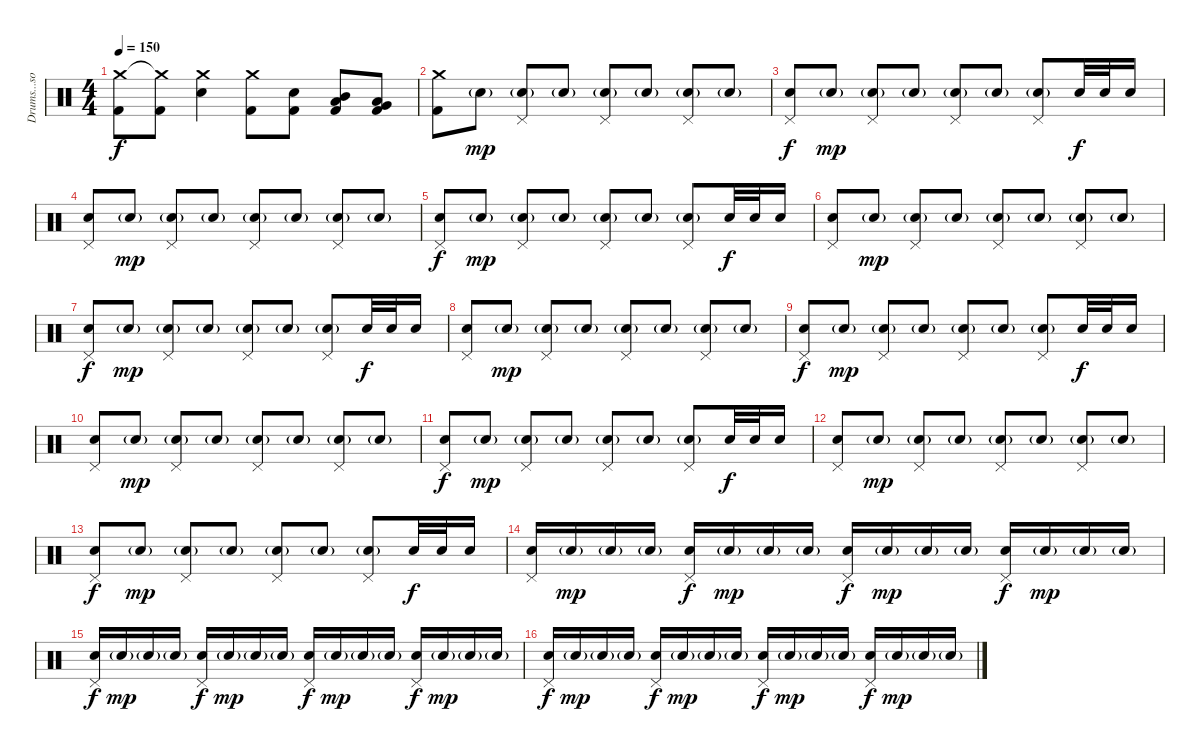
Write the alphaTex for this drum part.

\track ("Drums...song tabbed by ae" "Drums...so") {instrument percussion}
\staff {score}
\articulation defaults
\ts (4 4)
\tempo 150
\clef neutral
\ks c
("Crash medium (hit)" "Kick (hit) 2").8{dy f} ("Crash medium (hit)"{t} "Kick (hit) 2").8 ("Crash medium (hit)" "Electric Snare (hit)").4 ("Crash medium (hit)" "Kick (hit) 2").8 ("Electric Snare (hit)" "Kick (hit) 2").8 ("Mid Tom (hit)" "Low Tom (hit)" "Kick (hit) 2").8 ("Low Tom (hit)" "Very Low Tom (hit)" "Kick (hit) 2").8 |
("Crash medium (hit)" "Kick (hit) 2").8 "Electric Snare (hit)"{g}.8{dy mp} ("Pedal Hi-Hat (hit)" "Electric Snare (hit)"{g}).8 "Electric Snare (hit)"{g}.8 ("Pedal Hi-Hat (hit)" "Electric Snare (hit)"{g}).8 "Electric Snare (hit)"{g}.8 ("Pedal Hi-Hat (hit)" "Electric Snare (hit)"{g}).8 "Electric Snare (hit)"{g}.8 |
("Pedal Hi-Hat (hit)" "Electric Snare (hit)").8{dy f} "Electric Snare (hit)"{g}.8{dy mp} ("Pedal Hi-Hat (hit)" "Electric Snare (hit)"{g}).8 "Electric Snare (hit)"{g}.8 ("Pedal Hi-Hat (hit)" "Electric Snare (hit)"{g}).8 "Electric Snare (hit)"{g}.8 ("Pedal Hi-Hat (hit)" "Electric Snare (hit)"{g}).8 "Electric Snare (hit)".32{dy f} "Electric Snare (hit)".32 "Electric Snare (hit)".16 |
("Pedal Hi-Hat (hit)" "Electric Snare (hit)").8 "Electric Snare (hit)"{g}.8{dy mp} ("Pedal Hi-Hat (hit)" "Electric Snare (hit)"{g}).8 "Electric Snare (hit)"{g}.8 ("Pedal Hi-Hat (hit)" "Electric Snare (hit)"{g}).8 "Electric Snare (hit)"{g}.8 ("Pedal Hi-Hat (hit)" "Electric Snare (hit)"{g}).8 "Electric Snare (hit)"{g}.8 |
("Pedal Hi-Hat (hit)" "Electric Snare (hit)").8{dy f} "Electric Snare (hit)"{g}.8{dy mp} ("Pedal Hi-Hat (hit)" "Electric Snare (hit)"{g}).8 "Electric Snare (hit)"{g}.8 ("Pedal Hi-Hat (hit)" "Electric Snare (hit)"{g}).8 "Electric Snare (hit)"{g}.8 ("Pedal Hi-Hat (hit)" "Electric Snare (hit)"{g}).8 "Electric Snare (hit)".32{dy f} "Electric Snare (hit)".32 "Electric Snare (hit)".16 |
("Pedal Hi-Hat (hit)" "Electric Snare (hit)").8 "Electric Snare (hit)"{g}.8{dy mp} ("Pedal Hi-Hat (hit)" "Electric Snare (hit)"{g}).8 "Electric Snare (hit)"{g}.8 ("Pedal Hi-Hat (hit)" "Electric Snare (hit)"{g}).8 "Electric Snare (hit)"{g}.8 ("Pedal Hi-Hat (hit)" "Electric Snare (hit)"{g}).8 "Electric Snare (hit)"{g}.8 |
("Pedal Hi-Hat (hit)" "Electric Snare (hit)").8{dy f} "Electric Snare (hit)"{g}.8{dy mp} ("Pedal Hi-Hat (hit)" "Electric Snare (hit)"{g}).8 "Electric Snare (hit)"{g}.8 ("Pedal Hi-Hat (hit)" "Electric Snare (hit)"{g}).8 "Electric Snare (hit)"{g}.8 ("Pedal Hi-Hat (hit)" "Electric Snare (hit)"{g}).8 "Electric Snare (hit)".32{dy f} "Electric Snare (hit)".32 "Electric Snare (hit)".16 |
("Pedal Hi-Hat (hit)" "Electric Snare (hit)").8 "Electric Snare (hit)"{g}.8{dy mp} ("Pedal Hi-Hat (hit)" "Electric Snare (hit)"{g}).8 "Electric Snare (hit)"{g}.8 ("Pedal Hi-Hat (hit)" "Electric Snare (hit)"{g}).8 "Electric Snare (hit)"{g}.8 ("Pedal Hi-Hat (hit)" "Electric Snare (hit)"{g}).8 "Electric Snare (hit)"{g}.8 |
("Pedal Hi-Hat (hit)" "Electric Snare (hit)").8{dy f} "Electric Snare (hit)"{g}.8{dy mp} ("Pedal Hi-Hat (hit)" "Electric Snare (hit)"{g}).8 "Electric Snare (hit)"{g}.8 ("Pedal Hi-Hat (hit)" "Electric Snare (hit)"{g}).8 "Electric Snare (hit)"{g}.8 ("Pedal Hi-Hat (hit)" "Electric Snare (hit)"{g}).8 "Electric Snare (hit)".32{dy f} "Electric Snare (hit)".32 "Electric Snare (hit)".16 |
("Pedal Hi-Hat (hit)" "Electric Snare (hit)").8 "Electric Snare (hit)"{g}.8{dy mp} ("Pedal Hi-Hat (hit)" "Electric Snare (hit)"{g}).8 "Electric Snare (hit)"{g}.8 ("Pedal Hi-Hat (hit)" "Electric Snare (hit)"{g}).8 "Electric Snare (hit)"{g}.8 ("Pedal Hi-Hat (hit)" "Electric Snare (hit)"{g}).8 "Electric Snare (hit)"{g}.8 |
("Pedal Hi-Hat (hit)" "Electric Snare (hit)").8{dy f} "Electric Snare (hit)"{g}.8{dy mp} ("Pedal Hi-Hat (hit)" "Electric Snare (hit)"{g}).8 "Electric Snare (hit)"{g}.8 ("Pedal Hi-Hat (hit)" "Electric Snare (hit)"{g}).8 "Electric Snare (hit)"{g}.8 ("Pedal Hi-Hat (hit)" "Electric Snare (hit)"{g}).8 "Electric Snare (hit)".32{dy f} "Electric Snare (hit)".32 "Electric Snare (hit)".16 |
("Pedal Hi-Hat (hit)" "Electric Snare (hit)").8 "Electric Snare (hit)"{g}.8{dy mp} ("Pedal Hi-Hat (hit)" "Electric Snare (hit)"{g}).8 "Electric Snare (hit)"{g}.8 ("Pedal Hi-Hat (hit)" "Electric Snare (hit)"{g}).8 "Electric Snare (hit)"{g}.8 ("Pedal Hi-Hat (hit)" "Electric Snare (hit)"{g}).8 "Electric Snare (hit)"{g}.8 |
("Pedal Hi-Hat (hit)" "Electric Snare (hit)").8{dy f} "Electric Snare (hit)"{g}.8{dy mp} ("Pedal Hi-Hat (hit)" "Electric Snare (hit)"{g}).8 "Electric Snare (hit)"{g}.8 ("Pedal Hi-Hat (hit)" "Electric Snare (hit)"{g}).8 "Electric Snare (hit)"{g}.8 ("Pedal Hi-Hat (hit)" "Electric Snare (hit)"{g}).8 "Electric Snare (hit)".32{dy f} "Electric Snare (hit)".32 "Electric Snare (hit)".16 |
("Pedal Hi-Hat (hit)" "Electric Snare (hit)").16 "Electric Snare (hit)"{g}.16{dy mp} "Electric Snare (hit)"{g}.16 "Electric Snare (hit)"{g}.16 ("Pedal Hi-Hat (hit)" "Electric Snare (hit)").16{dy f} "Electric Snare (hit)"{g}.16{dy mp} "Electric Snare (hit)"{g}.16 "Electric Snare (hit)"{g}.16 ("Pedal Hi-Hat (hit)" "Electric Snare (hit)").16{dy f} "Electric Snare (hit)"{g}.16{dy mp} "Electric Snare (hit)"{g}.16 "Electric Snare (hit)"{g}.16 ("Pedal Hi-Hat (hit)" "Electric Snare (hit)").16{dy f} "Electric Snare (hit)"{g}.16{dy mp} "Electric Snare (hit)"{g}.16 "Electric Snare (hit)"{g}.16 |
("Pedal Hi-Hat (hit)" "Electric Snare (hit)").16{dy f} "Electric Snare (hit)"{g}.16{dy mp} "Electric Snare (hit)"{g}.16 "Electric Snare (hit)"{g}.16 ("Pedal Hi-Hat (hit)" "Electric Snare (hit)").16{dy f} "Electric Snare (hit)"{g}.16{dy mp} "Electric Snare (hit)"{g}.16 "Electric Snare (hit)"{g}.16 ("Pedal Hi-Hat (hit)" "Electric Snare (hit)").16{dy f} "Electric Snare (hit)"{g}.16{dy mp} "Electric Snare (hit)"{g}.16 "Electric Snare (hit)"{g}.16 ("Pedal Hi-Hat (hit)" "Electric Snare (hit)").16{dy f} "Electric Snare (hit)"{g}.16{dy mp} "Electric Snare (hit)"{g}.16 "Electric Snare (hit)"{g}.16 |
("Pedal Hi-Hat (hit)" "Electric Snare (hit)").16{dy f} "Electric Snare (hit)"{g}.16{dy mp} "Electric Snare (hit)"{g}.16 "Electric Snare (hit)"{g}.16 ("Pedal Hi-Hat (hit)" "Electric Snare (hit)").16{dy f} "Electric Snare (hit)"{g}.16{dy mp} "Electric Snare (hit)"{g}.16 "Electric Snare (hit)"{g}.16 ("Pedal Hi-Hat (hit)" "Electric Snare (hit)").16{dy f} "Electric Snare (hit)"{g}.16{dy mp} "Electric Snare (hit)"{g}.16 "Electric Snare (hit)"{g}.16 ("Pedal Hi-Hat (hit)" "Electric Snare (hit)").16{dy f} "Electric Snare (hit)"{g}.16{dy mp} "Electric Snare (hit)"{g}.16 "Electric Snare (hit)"{g}.16
